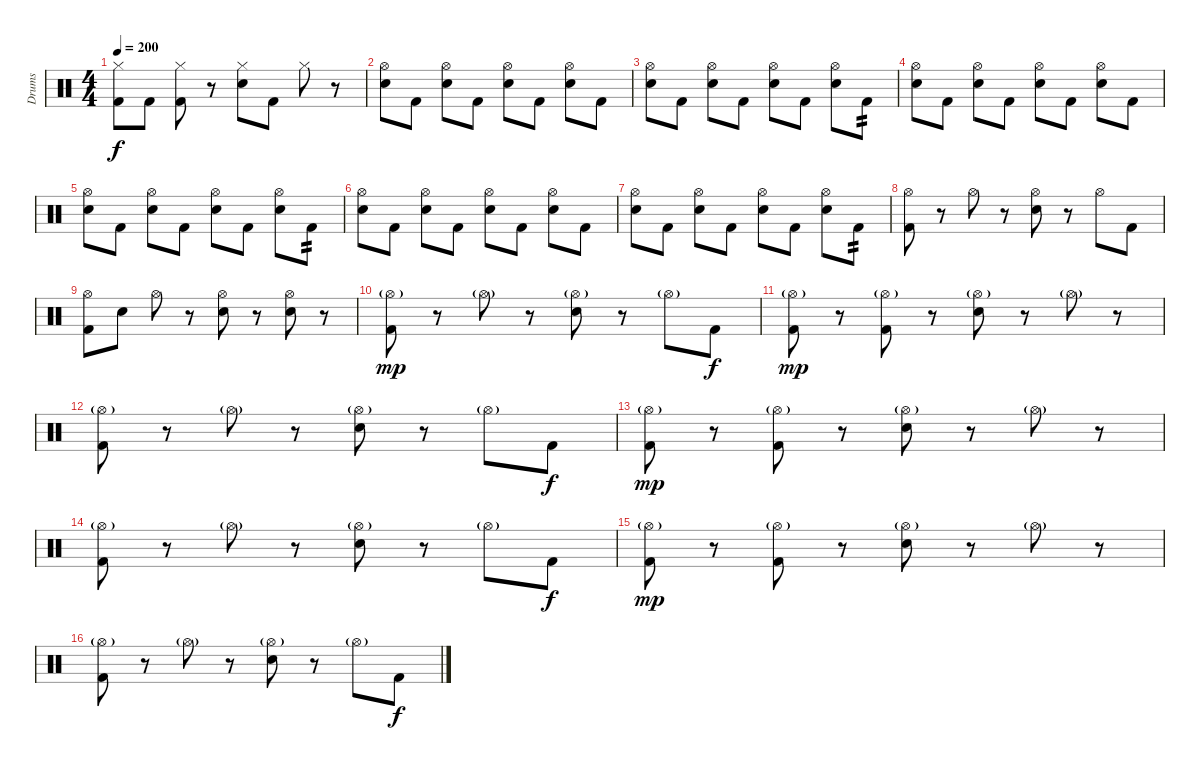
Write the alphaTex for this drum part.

\track ("Drums" "Drums") {instrument percussion}
\staff {score}
\articulation defaults
\ts (4 4)
\tempo 200
\clef neutral
\ks c
("Hi-Hat (closed)" "Kick (hit) 2").8{dy f} "Kick (hit) 2".8 ("Hi-Hat (closed)" "Kick (hit) 2").8 r.8 ("Hi-Hat (closed)" "Electric Snare (hit)").8 "Kick (hit) 2".8 "Hi-Hat (closed)".8 r.8 |
("Hi-Hat (open)" "Electric Snare (hit)").8 "Kick (hit) 2".8 ("Hi-Hat (open)" "Electric Snare (hit)").8 "Kick (hit) 2".8 ("Hi-Hat (open)" "Electric Snare (hit)").8 "Kick (hit) 2".8 ("Hi-Hat (open)" "Electric Snare (hit)").8 "Kick (hit) 2".8 |
("Hi-Hat (open)" "Electric Snare (hit)").8 "Kick (hit) 2".8 ("Hi-Hat (open)" "Electric Snare (hit)").8 "Kick (hit) 2".8 ("Hi-Hat (open)" "Electric Snare (hit)").8 "Kick (hit) 2".8 ("Hi-Hat (open)" "Electric Snare (hit)").8 "Kick (hit) 2".8{tp 2} |
("Hi-Hat (open)" "Electric Snare (hit)").8 "Kick (hit) 2".8 ("Hi-Hat (open)" "Electric Snare (hit)").8 "Kick (hit) 2".8 ("Hi-Hat (open)" "Electric Snare (hit)").8 "Kick (hit) 2".8 ("Hi-Hat (open)" "Electric Snare (hit)").8 "Kick (hit) 2".8 |
("Hi-Hat (open)" "Electric Snare (hit)").8 "Kick (hit) 2".8 ("Hi-Hat (open)" "Electric Snare (hit)").8 "Kick (hit) 2".8 ("Hi-Hat (open)" "Electric Snare (hit)").8 "Kick (hit) 2".8 ("Hi-Hat (open)" "Electric Snare (hit)").8 "Kick (hit) 2".8{tp 2} |
("Hi-Hat (open)" "Electric Snare (hit)").8 "Kick (hit) 2".8 ("Hi-Hat (open)" "Electric Snare (hit)").8 "Kick (hit) 2".8 ("Hi-Hat (open)" "Electric Snare (hit)").8 "Kick (hit) 2".8 ("Hi-Hat (open)" "Electric Snare (hit)").8 "Kick (hit) 2".8 |
("Hi-Hat (open)" "Electric Snare (hit)").8 "Kick (hit) 2".8 ("Hi-Hat (open)" "Electric Snare (hit)").8 "Kick (hit) 2".8 ("Hi-Hat (open)" "Electric Snare (hit)").8 "Kick (hit) 2".8 ("Hi-Hat (open)" "Electric Snare (hit)").8 "Kick (hit) 2".8{tp 2} |
("Hi-Hat (open)" "Kick (hit) 2").8 r.8 "Hi-Hat (open)".8 r.8 ("Hi-Hat (open)" "Electric Snare (hit)").8 r.8 "Hi-Hat (open)".8 "Kick (hit) 2".8 |
("Hi-Hat (open)" "Kick (hit) 2").8 "Electric Snare (hit)".8 "Hi-Hat (open)".8 r.8 ("Hi-Hat (open)" "Electric Snare (hit)").8 r.8 ("Hi-Hat (open)" "Electric Snare (hit)").8 r.8 |
("Hi-Hat (open)"{g} "Kick (hit) 2").8{dy mp} r.8 "Hi-Hat (open)"{g}.8 r.8 ("Hi-Hat (open)"{g} "Electric Snare (hit)").8 r.8 "Hi-Hat (open)"{g}.8 "Kick (hit) 2".8{dy f} |
("Hi-Hat (open)"{g} "Kick (hit) 2").8{dy mp} r.8 ("Hi-Hat (open)"{g} "Kick (hit) 2").8 r.8 ("Hi-Hat (open)"{g} "Electric Snare (hit)").8 r.8 "Hi-Hat (open)"{g}.8 r.8 |
("Hi-Hat (open)"{g} "Kick (hit) 2").8 r.8 "Hi-Hat (open)"{g}.8 r.8 ("Hi-Hat (open)"{g} "Electric Snare (hit)").8 r.8 "Hi-Hat (open)"{g}.8 "Kick (hit) 2".8{dy f} |
("Hi-Hat (open)"{g} "Kick (hit) 2").8{dy mp} r.8 ("Hi-Hat (open)"{g} "Kick (hit) 2").8 r.8 ("Hi-Hat (open)"{g} "Electric Snare (hit)").8 r.8 "Hi-Hat (open)"{g}.8 r.8 |
("Hi-Hat (open)"{g} "Kick (hit) 2").8 r.8 "Hi-Hat (open)"{g}.8 r.8 ("Hi-Hat (open)"{g} "Electric Snare (hit)").8 r.8 "Hi-Hat (open)"{g}.8 "Kick (hit) 2".8{dy f} |
("Hi-Hat (open)"{g} "Kick (hit) 2").8{dy mp} r.8 ("Hi-Hat (open)"{g} "Kick (hit) 2").8 r.8 ("Hi-Hat (open)"{g} "Electric Snare (hit)").8 r.8 "Hi-Hat (open)"{g}.8 r.8 |
("Hi-Hat (open)"{g} "Kick (hit) 2").8 r.8 "Hi-Hat (open)"{g}.8 r.8 ("Hi-Hat (open)"{g} "Electric Snare (hit)").8 r.8 "Hi-Hat (open)"{g}.8 "Kick (hit) 2".8{dy f}
